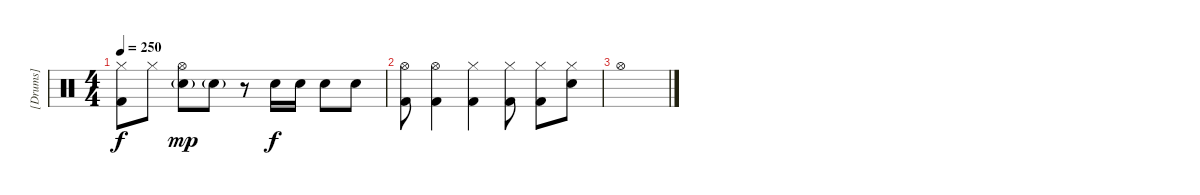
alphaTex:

\track ("[Drums]" "[Drums]") {instrument percussion}
\staff {score}
\articulation defaults
\ts (4 4)
\tempo 250
\clef neutral
\ks c
("Hi-Hat (closed)" "Kick (hit) 2").8{dy f} "Hi-Hat (closed)".8 ("Hi-Hat (open)" "Electric Snare (hit)"{g}).8{dy mp} "Electric Snare (hit)"{g}.8 r.8 "Electric Snare (hit)".16{dy f} "Electric Snare (hit)".16 "Electric Snare (hit)".8 "Electric Snare (hit)".8 |
("Hi-Hat (open)" "Kick (hit) 2").8 ("Hi-Hat (open)" "Kick (hit) 2").4 ("Hi-Hat (closed)" "Kick (hit) 2").4 ("Hi-Hat (closed)" "Kick (hit) 2").8 ("Hi-Hat (closed)" "Kick (hit) 2").8 ("Hi-Hat (closed)" "Electric Snare (hit)").8 |
"Hi-Hat (open)".1
